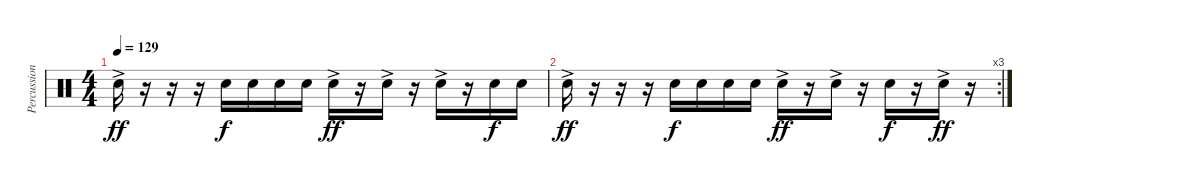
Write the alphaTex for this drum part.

\track ("Percussion" "Percussion") {instrument percussion bank 159}
\staff {score}
\articulation defaults
\ts (4 4)
\tempo 129
\clef neutral
\ks c "Snare (hit) 2"{ac}.16{dy ff}
r.16 r.16 r.16 "Snare (hit) 2".16{dy f} "Snare (hit) 2".16 "Snare (hit) 2".16 "Snare (hit) 2".16 "Snare (hit) 2"{ac}.16{dy ff} r.16 "Snare (hit) 2"{ac}.16 r.16 "Snare (hit) 2"{ac}.16 r.16 "Snare (hit) 2".16{dy f} "Snare (hit) 2".16 |
\rc 3 "Snare (hit) 2"{ac}.16{dy ff}
r.16 r.16 r.16 "Snare (hit) 2".16{dy f} "Snare (hit) 2".16 "Snare (hit) 2".16 "Snare (hit) 2".16 "Snare (hit) 2"{ac}.16{dy ff} r.16 "Snare (hit) 2"{ac}.16 r.16 "Snare (hit) 2".16{dy f} r.16 "Snare (hit) 2"{ac}.16{dy ff} r.16
